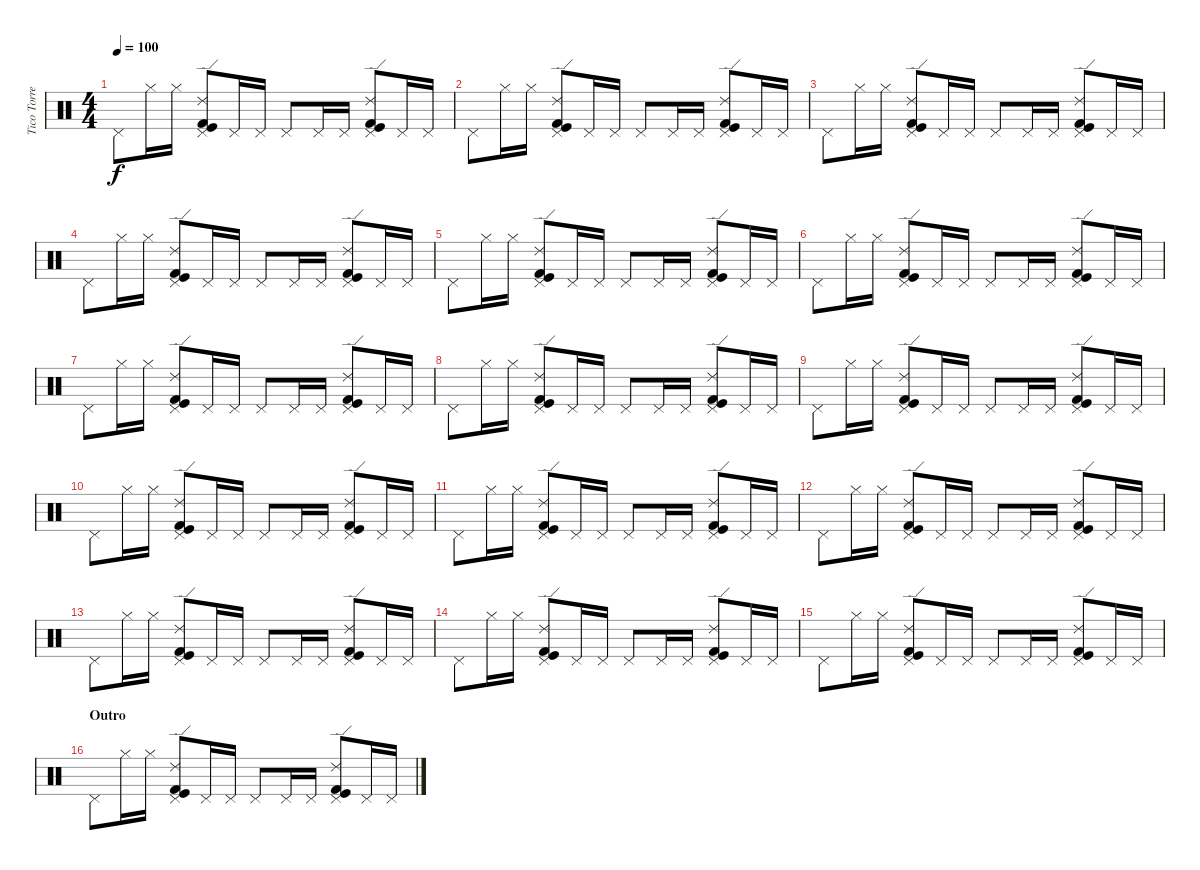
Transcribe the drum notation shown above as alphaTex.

\track ("Tico Torres" "Tico Torre") {instrument percussion}
\staff {score}
\articulation defaults
\ts (4 4)
\tempo 100
\clef neutral
\ks c "Pedal Hi-Hat (hit)".8{dy f} "Hi-Hat (closed)".16 "Hi-Hat (closed)".16
("Ride (edge) 2" "Kick (hit)" "Pedal Hi-Hat (hit)" "Kick (hit) 2").8 "Pedal Hi-Hat (hit)".16 "Pedal Hi-Hat (hit)".16 "Pedal Hi-Hat (hit)".8 "Pedal Hi-Hat (hit)".16 "Pedal Hi-Hat (hit)".16 ("Ride (edge) 2" "Kick (hit)" "Pedal Hi-Hat (hit)" "Kick (hit) 2").8 "Pedal Hi-Hat (hit)".16 "Pedal Hi-Hat (hit)".16 |
"Pedal Hi-Hat (hit)".8 "Hi-Hat (closed)".16 "Hi-Hat (closed)".16 ("Ride (edge) 2" "Kick (hit)" "Pedal Hi-Hat (hit)" "Kick (hit) 2").8 "Pedal Hi-Hat (hit)".16 "Pedal Hi-Hat (hit)".16 "Pedal Hi-Hat (hit)".8 "Pedal Hi-Hat (hit)".16 "Pedal Hi-Hat (hit)".16 ("Ride (edge) 2" "Kick (hit)" "Pedal Hi-Hat (hit)" "Kick (hit) 2").8 "Pedal Hi-Hat (hit)".16 "Pedal Hi-Hat (hit)".16 |
"Pedal Hi-Hat (hit)".8 "Hi-Hat (closed)".16 "Hi-Hat (closed)".16 ("Ride (edge) 2" "Kick (hit)" "Pedal Hi-Hat (hit)" "Kick (hit) 2").8 "Pedal Hi-Hat (hit)".16 "Pedal Hi-Hat (hit)".16 "Pedal Hi-Hat (hit)".8 "Pedal Hi-Hat (hit)".16 "Pedal Hi-Hat (hit)".16 ("Ride (edge) 2" "Kick (hit)" "Pedal Hi-Hat (hit)" "Kick (hit) 2").8 "Pedal Hi-Hat (hit)".16 "Pedal Hi-Hat (hit)".16 |
"Pedal Hi-Hat (hit)".8 "Hi-Hat (closed)".16 "Hi-Hat (closed)".16 ("Ride (edge) 2" "Kick (hit)" "Pedal Hi-Hat (hit)" "Kick (hit) 2").8 "Pedal Hi-Hat (hit)".16 "Pedal Hi-Hat (hit)".16 "Pedal Hi-Hat (hit)".8 "Pedal Hi-Hat (hit)".16 "Pedal Hi-Hat (hit)".16 ("Ride (edge) 2" "Kick (hit)" "Pedal Hi-Hat (hit)" "Kick (hit) 2").8 "Pedal Hi-Hat (hit)".16 "Pedal Hi-Hat (hit)".16 |
"Pedal Hi-Hat (hit)".8 "Hi-Hat (closed)".16 "Hi-Hat (closed)".16 ("Ride (edge) 2" "Kick (hit)" "Pedal Hi-Hat (hit)" "Kick (hit) 2").8 "Pedal Hi-Hat (hit)".16 "Pedal Hi-Hat (hit)".16 "Pedal Hi-Hat (hit)".8 "Pedal Hi-Hat (hit)".16 "Pedal Hi-Hat (hit)".16 ("Ride (edge) 2" "Kick (hit)" "Pedal Hi-Hat (hit)" "Kick (hit) 2").8 "Pedal Hi-Hat (hit)".16 "Pedal Hi-Hat (hit)".16 |
"Pedal Hi-Hat (hit)".8 "Hi-Hat (closed)".16 "Hi-Hat (closed)".16 ("Ride (edge) 2" "Kick (hit)" "Pedal Hi-Hat (hit)" "Kick (hit) 2").8 "Pedal Hi-Hat (hit)".16 "Pedal Hi-Hat (hit)".16 "Pedal Hi-Hat (hit)".8 "Pedal Hi-Hat (hit)".16 "Pedal Hi-Hat (hit)".16 ("Ride (edge) 2" "Kick (hit)" "Pedal Hi-Hat (hit)" "Kick (hit) 2").8 "Pedal Hi-Hat (hit)".16 "Pedal Hi-Hat (hit)".16 |
"Pedal Hi-Hat (hit)".8 "Hi-Hat (closed)".16 "Hi-Hat (closed)".16 ("Ride (edge) 2" "Kick (hit)" "Pedal Hi-Hat (hit)" "Kick (hit) 2").8 "Pedal Hi-Hat (hit)".16 "Pedal Hi-Hat (hit)".16 "Pedal Hi-Hat (hit)".8 "Pedal Hi-Hat (hit)".16 "Pedal Hi-Hat (hit)".16 ("Ride (edge) 2" "Kick (hit)" "Pedal Hi-Hat (hit)" "Kick (hit) 2").8 "Pedal Hi-Hat (hit)".16 "Pedal Hi-Hat (hit)".16 |
"Pedal Hi-Hat (hit)".8 "Hi-Hat (closed)".16 "Hi-Hat (closed)".16 ("Ride (edge) 2" "Kick (hit)" "Pedal Hi-Hat (hit)" "Kick (hit) 2").8 "Pedal Hi-Hat (hit)".16 "Pedal Hi-Hat (hit)".16 "Pedal Hi-Hat (hit)".8 "Pedal Hi-Hat (hit)".16 "Pedal Hi-Hat (hit)".16 ("Ride (edge) 2" "Kick (hit)" "Pedal Hi-Hat (hit)" "Kick (hit) 2").8 "Pedal Hi-Hat (hit)".16 "Pedal Hi-Hat (hit)".16 |
"Pedal Hi-Hat (hit)".8 "Hi-Hat (closed)".16 "Hi-Hat (closed)".16 ("Ride (edge) 2" "Kick (hit)" "Pedal Hi-Hat (hit)" "Kick (hit) 2").8 "Pedal Hi-Hat (hit)".16 "Pedal Hi-Hat (hit)".16 "Pedal Hi-Hat (hit)".8 "Pedal Hi-Hat (hit)".16 "Pedal Hi-Hat (hit)".16 ("Ride (edge) 2" "Kick (hit)" "Pedal Hi-Hat (hit)" "Kick (hit) 2").8 "Pedal Hi-Hat (hit)".16 "Pedal Hi-Hat (hit)".16 |
"Pedal Hi-Hat (hit)".8 "Hi-Hat (closed)".16 "Hi-Hat (closed)".16 ("Ride (edge) 2" "Kick (hit)" "Pedal Hi-Hat (hit)" "Kick (hit) 2").8 "Pedal Hi-Hat (hit)".16 "Pedal Hi-Hat (hit)".16 "Pedal Hi-Hat (hit)".8 "Pedal Hi-Hat (hit)".16 "Pedal Hi-Hat (hit)".16 ("Ride (edge) 2" "Kick (hit)" "Pedal Hi-Hat (hit)" "Kick (hit) 2").8 "Pedal Hi-Hat (hit)".16 "Pedal Hi-Hat (hit)".16 |
"Pedal Hi-Hat (hit)".8 "Hi-Hat (closed)".16 "Hi-Hat (closed)".16 ("Ride (edge) 2" "Kick (hit)" "Pedal Hi-Hat (hit)" "Kick (hit) 2").8 "Pedal Hi-Hat (hit)".16 "Pedal Hi-Hat (hit)".16 "Pedal Hi-Hat (hit)".8 "Pedal Hi-Hat (hit)".16 "Pedal Hi-Hat (hit)".16 ("Ride (edge) 2" "Kick (hit)" "Pedal Hi-Hat (hit)" "Kick (hit) 2").8 "Pedal Hi-Hat (hit)".16 "Pedal Hi-Hat (hit)".16 |
"Pedal Hi-Hat (hit)".8 "Hi-Hat (closed)".16 "Hi-Hat (closed)".16 ("Ride (edge) 2" "Kick (hit)" "Pedal Hi-Hat (hit)" "Kick (hit) 2").8 "Pedal Hi-Hat (hit)".16 "Pedal Hi-Hat (hit)".16 "Pedal Hi-Hat (hit)".8 "Pedal Hi-Hat (hit)".16 "Pedal Hi-Hat (hit)".16 ("Ride (edge) 2" "Kick (hit)" "Pedal Hi-Hat (hit)" "Kick (hit) 2").8 "Pedal Hi-Hat (hit)".16 "Pedal Hi-Hat (hit)".16 |
"Pedal Hi-Hat (hit)".8 "Hi-Hat (closed)".16 "Hi-Hat (closed)".16 ("Ride (edge) 2" "Kick (hit)" "Pedal Hi-Hat (hit)" "Kick (hit) 2").8 "Pedal Hi-Hat (hit)".16 "Pedal Hi-Hat (hit)".16 "Pedal Hi-Hat (hit)".8 "Pedal Hi-Hat (hit)".16 "Pedal Hi-Hat (hit)".16 ("Ride (edge) 2" "Kick (hit)" "Pedal Hi-Hat (hit)" "Kick (hit) 2").8 "Pedal Hi-Hat (hit)".16 "Pedal Hi-Hat (hit)".16 |
"Pedal Hi-Hat (hit)".8 "Hi-Hat (closed)".16 "Hi-Hat (closed)".16 ("Ride (edge) 2" "Kick (hit)" "Pedal Hi-Hat (hit)" "Kick (hit) 2").8 "Pedal Hi-Hat (hit)".16 "Pedal Hi-Hat (hit)".16 "Pedal Hi-Hat (hit)".8 "Pedal Hi-Hat (hit)".16 "Pedal Hi-Hat (hit)".16 ("Ride (edge) 2" "Kick (hit)" "Pedal Hi-Hat (hit)" "Kick (hit) 2").8 "Pedal Hi-Hat (hit)".16 "Pedal Hi-Hat (hit)".16 |
"Pedal Hi-Hat (hit)".8 "Hi-Hat (closed)".16 "Hi-Hat (closed)".16 ("Ride (edge) 2" "Kick (hit)" "Pedal Hi-Hat (hit)" "Kick (hit) 2").8 "Pedal Hi-Hat (hit)".16 "Pedal Hi-Hat (hit)".16 "Pedal Hi-Hat (hit)".8 "Pedal Hi-Hat (hit)".16 "Pedal Hi-Hat (hit)".16 ("Ride (edge) 2" "Kick (hit)" "Pedal Hi-Hat (hit)" "Kick (hit) 2").8 "Pedal Hi-Hat (hit)".16 "Pedal Hi-Hat (hit)".16 |
\section ("" "Outro")
"Pedal Hi-Hat (hit)".8 "Hi-Hat (closed)".16 "Hi-Hat (closed)".16 ("Ride (edge) 2" "Kick (hit)" "Pedal Hi-Hat (hit)" "Kick (hit) 2").8 "Pedal Hi-Hat (hit)".16 "Pedal Hi-Hat (hit)".16 "Pedal Hi-Hat (hit)".8 "Pedal Hi-Hat (hit)".16 "Pedal Hi-Hat (hit)".16 ("Ride (edge) 2" "Kick (hit)" "Pedal Hi-Hat (hit)" "Kick (hit) 2").8 "Pedal Hi-Hat (hit)".16 "Pedal Hi-Hat (hit)".16
